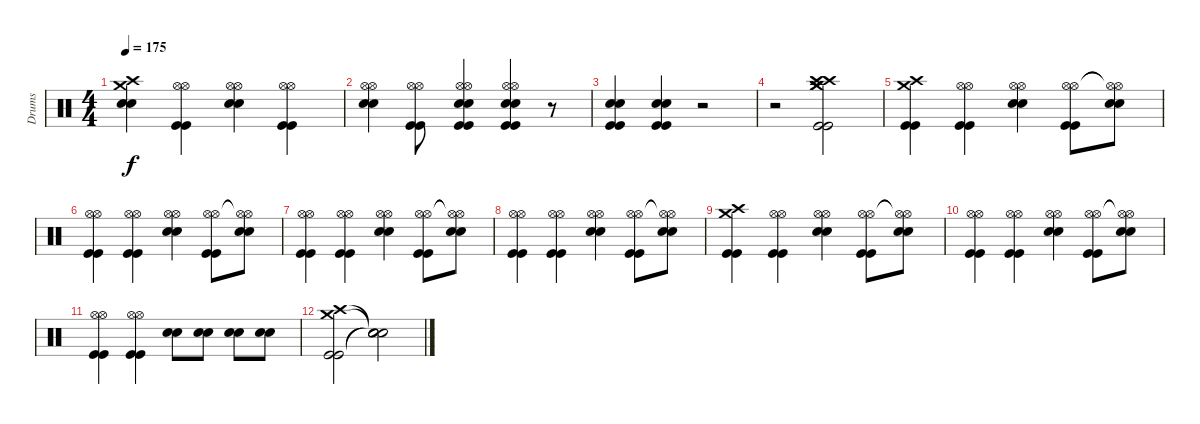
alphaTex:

\track ("Drums" "Drums") {instrument percussion}
\staff {score}
\articulation defaults
\ts (4 4)
\tempo 175
\clef neutral
\ks c
("Crash high (hit)" "Crash medium (hit)" "Electric Snare (hit)" "Electric Snare (hit)").4{dy f} ("Hi-Hat (open)" "Hi-Hat (open)" "Kick (hit)" "Kick (hit)").4 ("Hi-Hat (open)" "Hi-Hat (open)" "Electric Snare (hit)" "Electric Snare (hit)").4 ("Hi-Hat (open)" "Hi-Hat (open)" "Kick (hit)" "Kick (hit)").4 |
("Hi-Hat (open)" "Hi-Hat (open)" "Electric Snare (hit)" "Electric Snare (hit)").4 ("Hi-Hat (open)" "Hi-Hat (open)" "Kick (hit)" "Kick (hit)").8 ("Hi-Hat (open)" "Hi-Hat (open)" "Electric Snare (hit)" "Electric Snare (hit)" "Kick (hit)" "Kick (hit)").4 ("Hi-Hat (open)" "Hi-Hat (open)" "Electric Snare (hit)" "Electric Snare (hit)" "Kick (hit)" "Kick (hit)").4 r.8 |
("Electric Snare (hit)" "Electric Snare (hit)" "Kick (hit)" "Kick (hit)").4 ("Electric Snare (hit)" "Electric Snare (hit)" "Kick (hit)" "Kick (hit)").4 r.2 |
r.2 ("Crash high (hit)" "Crash high (hit)" "Crash medium (hit)" "Crash medium (hit)" "Kick (hit)" "Kick (hit)").2 |
("Crash high (hit)" "Crash medium (hit)" "Kick (hit)" "Kick (hit)").4 ("Hi-Hat (open)" "Hi-Hat (open)" "Kick (hit)" "Kick (hit)").4 ("Hi-Hat (open)" "Hi-Hat (open)" "Electric Snare (hit)" "Electric Snare (hit)").4 ("Hi-Hat (open)" "Hi-Hat (open)" "Kick (hit)" "Kick (hit)").8 ("Hi-Hat (open)"{t} "Hi-Hat (open)"{t} "Electric Snare (hit)" "Electric Snare (hit)").8 |
("Hi-Hat (open)" "Hi-Hat (open)" "Kick (hit)" "Kick (hit)").4 ("Hi-Hat (open)" "Hi-Hat (open)" "Kick (hit)" "Kick (hit)").4 ("Hi-Hat (open)" "Hi-Hat (open)" "Electric Snare (hit)" "Electric Snare (hit)").4 ("Hi-Hat (open)" "Hi-Hat (open)" "Kick (hit)" "Kick (hit)").8 ("Hi-Hat (open)"{t} "Hi-Hat (open)"{t} "Electric Snare (hit)" "Electric Snare (hit)").8 |
("Hi-Hat (open)" "Hi-Hat (open)" "Kick (hit)" "Kick (hit)").4 ("Hi-Hat (open)" "Hi-Hat (open)" "Kick (hit)" "Kick (hit)").4 ("Hi-Hat (open)" "Hi-Hat (open)" "Electric Snare (hit)" "Electric Snare (hit)").4 ("Hi-Hat (open)" "Hi-Hat (open)" "Kick (hit)" "Kick (hit)").8 ("Hi-Hat (open)"{t} "Hi-Hat (open)"{t} "Electric Snare (hit)" "Electric Snare (hit)").8 |
("Hi-Hat (open)" "Hi-Hat (open)" "Kick (hit)" "Kick (hit)").4 ("Hi-Hat (open)" "Hi-Hat (open)" "Kick (hit)" "Kick (hit)").4 ("Hi-Hat (open)" "Hi-Hat (open)" "Electric Snare (hit)" "Electric Snare (hit)").4 ("Hi-Hat (open)" "Hi-Hat (open)" "Kick (hit)" "Kick (hit)").8 ("Hi-Hat (open)"{t} "Hi-Hat (open)"{t} "Electric Snare (hit)" "Electric Snare (hit)").8 |
("Crash high (hit)" "Crash medium (hit)" "Kick (hit)" "Kick (hit)").4 ("Hi-Hat (open)" "Hi-Hat (open)" "Kick (hit)" "Kick (hit)").4 ("Hi-Hat (open)" "Hi-Hat (open)" "Electric Snare (hit)" "Electric Snare (hit)").4 ("Hi-Hat (open)" "Hi-Hat (open)" "Kick (hit)" "Kick (hit)").8 ("Hi-Hat (open)"{t} "Hi-Hat (open)"{t} "Electric Snare (hit)" "Electric Snare (hit)").8 |
("Hi-Hat (open)" "Hi-Hat (open)" "Kick (hit)" "Kick (hit)").4 ("Hi-Hat (open)" "Hi-Hat (open)" "Kick (hit)" "Kick (hit)").4 ("Hi-Hat (open)" "Hi-Hat (open)" "Electric Snare (hit)" "Electric Snare (hit)").4 ("Hi-Hat (open)" "Hi-Hat (open)" "Kick (hit)" "Kick (hit)").8 ("Hi-Hat (open)"{t} "Hi-Hat (open)"{t} "Electric Snare (hit)" "Electric Snare (hit)").8 |
("Hi-Hat (open)" "Hi-Hat (open)" "Kick (hit)" "Kick (hit)").4 ("Hi-Hat (open)" "Hi-Hat (open)" "Kick (hit)" "Kick (hit)").4 ("Electric Snare (hit)" "Electric Snare (hit)").8 ("Electric Snare (hit)" "Electric Snare (hit)").8 ("Electric Snare (hit)" "Electric Snare (hit)").8 ("Electric Snare (hit)" "Electric Snare (hit)").8 |
("Crash high (hit)" "Crash medium (hit)" "Kick (hit)" "Kick (hit)").2 ("Snare (hit)"{t} "Snare (hit)"{t} "Snare (hit)"{t} "Snare (hit)"{t}).2
